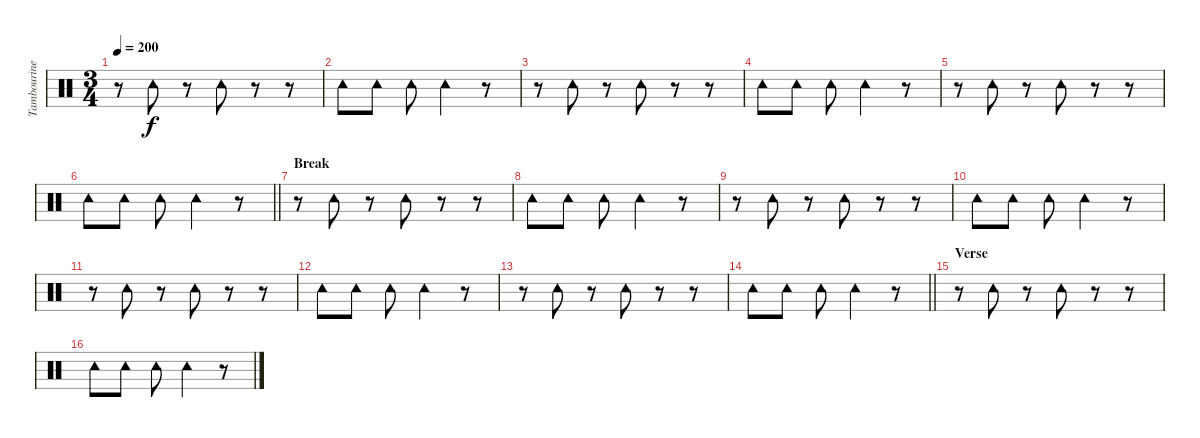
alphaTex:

\track ("Tambourine" "Tambourine") {instrument percussion}
\staff {score}
\articulation defaults
\ts (3 4)
\tempo 200
\clef neutral
\ks c
r.8{dy f} "Tambourine (hit)".8 r.8 "Tambourine (hit)".8 r.8 r.8 |
"Tambourine (hit)".8 "Tambourine (hit)".8 "Tambourine (hit)".8 "Tambourine (hit)".4 r.8 |
r.8 "Tambourine (hit)".8 r.8 "Tambourine (hit)".8 r.8 r.8 |
"Tambourine (hit)".8 "Tambourine (hit)".8 "Tambourine (hit)".8 "Tambourine (hit)".4 r.8 |
r.8 "Tambourine (hit)".8 r.8 "Tambourine (hit)".8 r.8 r.8 |
\barLineRight lightlight "Tambourine (hit)".8 "Tambourine (hit)".8 "Tambourine (hit)".8 "Tambourine (hit)".4
r.8 |
\section ("" "Break")
r.8 "Tambourine (hit)".8 r.8 "Tambourine (hit)".8 r.8 r.8 |
"Tambourine (hit)".8 "Tambourine (hit)".8 "Tambourine (hit)".8 "Tambourine (hit)".4 r.8 |
r.8 "Tambourine (hit)".8 r.8 "Tambourine (hit)".8 r.8 r.8 |
"Tambourine (hit)".8 "Tambourine (hit)".8 "Tambourine (hit)".8 "Tambourine (hit)".4 r.8 |
r.8 "Tambourine (hit)".8 r.8 "Tambourine (hit)".8 r.8 r.8 |
"Tambourine (hit)".8 "Tambourine (hit)".8 "Tambourine (hit)".8 "Tambourine (hit)".4 r.8 |
r.8 "Tambourine (hit)".8 r.8 "Tambourine (hit)".8 r.8 r.8 |
\barLineRight lightlight "Tambourine (hit)".8 "Tambourine (hit)".8 "Tambourine (hit)".8 "Tambourine (hit)".4
r.8 |
\section ("" "Verse")
r.8 "Tambourine (hit)".8 r.8 "Tambourine (hit)".8 r.8 r.8 |
"Tambourine (hit)".8 "Tambourine (hit)".8 "Tambourine (hit)".8 "Tambourine (hit)".4 r.8
